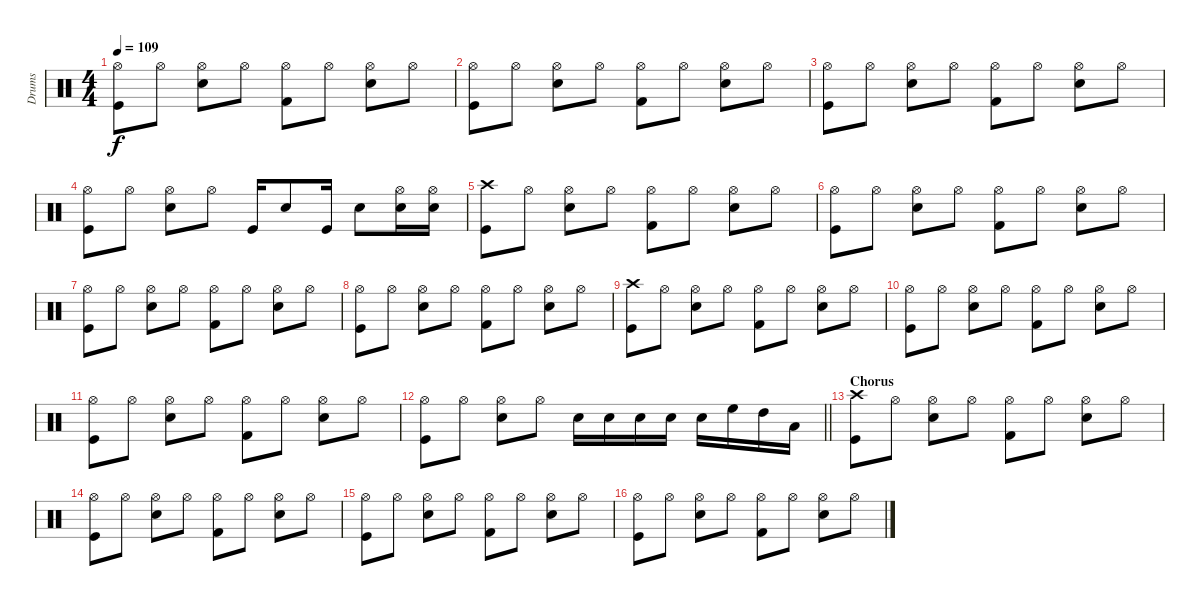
\track ("Drums" "Drums") {instrument percussion}
\staff {score}
\articulation defaults
\ts (4 4)
\tempo 109
\clef neutral
\ks c
("Hi-Hat (open)" "Kick (hit)").8{dy f} "Hi-Hat (open)".8 ("Hi-Hat (open)" "Snare (hit) 2").8 "Hi-Hat (open)".8 ("Hi-Hat (open)" "Kick (hit) 2").8 "Hi-Hat (open)".8 ("Hi-Hat (open)" "Snare (hit) 2").8 "Hi-Hat (open)".8 |
("Hi-Hat (open)" "Kick (hit)").8 "Hi-Hat (open)".8 ("Hi-Hat (open)" "Snare (hit) 2").8 "Hi-Hat (open)".8 ("Hi-Hat (open)" "Kick (hit) 2").8 "Hi-Hat (open)".8 ("Hi-Hat (open)" "Snare (hit) 2").8 "Hi-Hat (open)".8 |
("Hi-Hat (open)" "Kick (hit)").8 "Hi-Hat (open)".8 ("Hi-Hat (open)" "Snare (hit) 2").8 "Hi-Hat (open)".8 ("Hi-Hat (open)" "Kick (hit) 2").8 "Hi-Hat (open)".8 ("Hi-Hat (open)" "Snare (hit) 2").8 "Hi-Hat (open)".8 |
("Kick (hit)" "Hi-Hat (open)").8 "Hi-Hat (open)".8 ("Snare (hit) 2" "Hi-Hat (open)").8 "Hi-Hat (open)".8 "Kick (hit)".16 "Snare (hit) 2".8 "Kick (hit)".16 "Snare (hit) 2".8 ("Hi-Hat (open)" "Snare (hit) 2").16 ("Hi-Hat (open)" "Snare (hit) 2").16 |
("Crash high (hit)" "Kick (hit)").8 "Hi-Hat (open)".8 ("Hi-Hat (open)" "Snare (hit) 2").8 "Hi-Hat (open)".8 ("Hi-Hat (open)" "Kick (hit) 2").8 "Hi-Hat (open)".8 ("Hi-Hat (open)" "Snare (hit) 2").8 "Hi-Hat (open)".8 |
("Hi-Hat (open)" "Kick (hit)").8 "Hi-Hat (open)".8 ("Hi-Hat (open)" "Snare (hit) 2").8 "Hi-Hat (open)".8 ("Hi-Hat (open)" "Kick (hit) 2").8 "Hi-Hat (open)".8 ("Hi-Hat (open)" "Snare (hit) 2").8 "Hi-Hat (open)".8 |
("Hi-Hat (open)" "Kick (hit)").8 "Hi-Hat (open)".8 ("Hi-Hat (open)" "Snare (hit) 2").8 "Hi-Hat (open)".8 ("Hi-Hat (open)" "Kick (hit) 2").8 "Hi-Hat (open)".8 ("Hi-Hat (open)" "Snare (hit) 2").8 "Hi-Hat (open)".8 |
("Hi-Hat (open)" "Kick (hit)").8 "Hi-Hat (open)".8 ("Hi-Hat (open)" "Snare (hit) 2").8 "Hi-Hat (open)".8 ("Hi-Hat (open)" "Kick (hit) 2").8 "Hi-Hat (open)".8 ("Hi-Hat (open)" "Snare (hit) 2").8 "Hi-Hat (open)".8 |
("Crash high (hit)" "Kick (hit)").8 "Hi-Hat (open)".8 ("Hi-Hat (open)" "Snare (hit) 2").8 "Hi-Hat (open)".8 ("Hi-Hat (open)" "Kick (hit) 2").8 "Hi-Hat (open)".8 ("Hi-Hat (open)" "Snare (hit) 2").8 "Hi-Hat (open)".8 |
("Hi-Hat (open)" "Kick (hit)").8 "Hi-Hat (open)".8 ("Hi-Hat (open)" "Snare (hit) 2").8 "Hi-Hat (open)".8 ("Hi-Hat (open)" "Kick (hit) 2").8 "Hi-Hat (open)".8 ("Hi-Hat (open)" "Snare (hit) 2").8 "Hi-Hat (open)".8 |
("Hi-Hat (open)" "Kick (hit)").8 "Hi-Hat (open)".8 ("Hi-Hat (open)" "Snare (hit) 2").8 "Hi-Hat (open)".8 ("Hi-Hat (open)" "Kick (hit) 2").8 "Hi-Hat (open)".8 ("Hi-Hat (open)" "Snare (hit) 2").8 "Hi-Hat (open)".8 |
\barLineRight lightlight
("Kick (hit)" "Hi-Hat (open)").8 "Hi-Hat (open)".8 ("Snare (hit) 2" "Hi-Hat (open)").8 "Hi-Hat (open)".8 "Snare (hit) 2".16 "Snare (hit) 2".16 "Snare (hit) 2".16 "Snare (hit) 2".16 "Snare (hit) 2".16 "High Floor Tom (hit)".16 "High Tom (hit)".16 "Low Floor Tom (hit)".16 |
\section ("" "Chorus")
("Crash high (hit)" "Kick (hit)").8 "Hi-Hat (open)".8 ("Hi-Hat (open)" "Snare (hit) 2").8 "Hi-Hat (open)".8 ("Hi-Hat (open)" "Kick (hit) 2").8 "Hi-Hat (open)".8 ("Hi-Hat (open)" "Snare (hit) 2").8 "Hi-Hat (open)".8 |
("Hi-Hat (open)" "Kick (hit)").8 "Hi-Hat (open)".8 ("Hi-Hat (open)" "Snare (hit) 2").8 "Hi-Hat (open)".8 ("Hi-Hat (open)" "Kick (hit) 2").8 "Hi-Hat (open)".8 ("Hi-Hat (open)" "Snare (hit) 2").8 "Hi-Hat (open)".8 |
("Hi-Hat (open)" "Kick (hit)").8 "Hi-Hat (open)".8 ("Hi-Hat (open)" "Snare (hit) 2").8 "Hi-Hat (open)".8 ("Hi-Hat (open)" "Kick (hit) 2").8 "Hi-Hat (open)".8 ("Hi-Hat (open)" "Snare (hit) 2").8 "Hi-Hat (open)".8 |
("Hi-Hat (open)" "Kick (hit)").8 "Hi-Hat (open)".8 ("Hi-Hat (open)" "Snare (hit) 2").8 "Hi-Hat (open)".8 ("Hi-Hat (open)" "Kick (hit) 2").8 "Hi-Hat (open)".8 ("Hi-Hat (open)" "Snare (hit) 2").8 "Hi-Hat (open)".8
